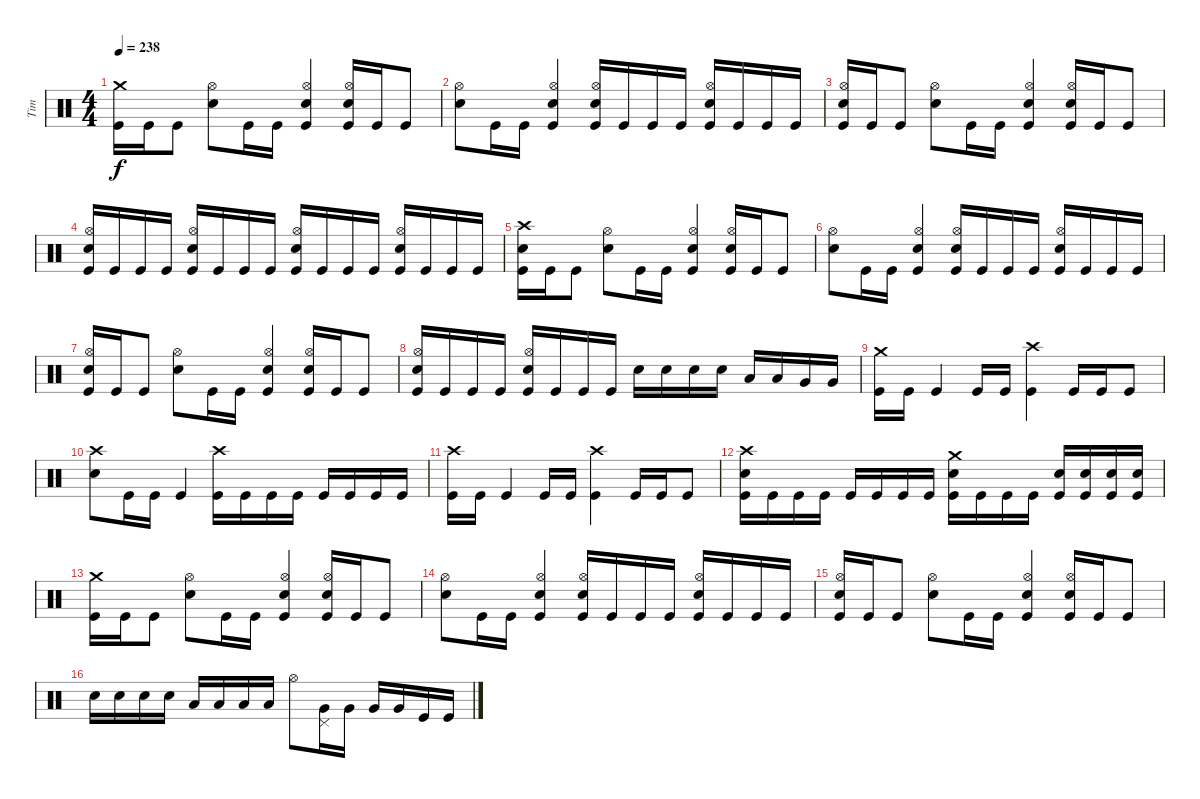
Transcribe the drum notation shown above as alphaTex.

\track ("Tim" "Tim") {instrument percussion}
\staff {score}
\articulation defaults
\ts (4 4)
\tempo 238
\clef neutral
\ks c
("Crash medium (hit)" "Kick (hit)").16{dy f} "Kick (hit)".16 "Kick (hit)".8 ("Hi-Hat (open)" "Electric Snare (hit)").8 "Kick (hit)".16 "Kick (hit)".16 ("Hi-Hat (open)" "Electric Snare (hit)" "Kick (hit)").4 ("Hi-Hat (open)" "Electric Snare (hit)" "Kick (hit)").16 "Kick (hit)".16 "Kick (hit)".8 |
("Hi-Hat (open)" "Electric Snare (hit)").8 "Kick (hit)".16 "Kick (hit)".16 ("Hi-Hat (open)" "Electric Snare (hit)" "Kick (hit)").4 ("Hi-Hat (open)" "Electric Snare (hit)" "Kick (hit)").16 "Kick (hit)".16 "Kick (hit)".16 "Kick (hit)".16 ("Hi-Hat (open)" "Electric Snare (hit)" "Kick (hit)").16 "Kick (hit)".16 "Kick (hit)".16 "Kick (hit)".16 |
("Hi-Hat (open)" "Electric Snare (hit)" "Kick (hit)").16 "Kick (hit)".16 "Kick (hit)".8 ("Hi-Hat (open)" "Electric Snare (hit)").8 "Kick (hit)".16 "Kick (hit)".16 ("Hi-Hat (open)" "Electric Snare (hit)" "Kick (hit)").4 ("Hi-Hat (open)" "Electric Snare (hit)" "Kick (hit)").16 "Kick (hit)".16 "Kick (hit)".8 |
("Hi-Hat (open)" "Electric Snare (hit)" "Kick (hit)").16 "Kick (hit)".16 "Kick (hit)".16 "Kick (hit)".16 ("Hi-Hat (open)" "Electric Snare (hit)" "Kick (hit)").16 "Kick (hit)".16 "Kick (hit)".16 "Kick (hit)".16 ("Hi-Hat (open)" "Electric Snare (hit)" "Kick (hit)").16 "Kick (hit)".16 "Kick (hit)".16 "Kick (hit)".16 ("Hi-Hat (open)" "Electric Snare (hit)" "Kick (hit)").16 "Kick (hit)".16 "Kick (hit)".16 "Kick (hit)".16 |
("Crash high (hit)" "Electric Snare (hit)" "Kick (hit)").16 "Kick (hit)".16 "Kick (hit)".8 ("Hi-Hat (open)" "Electric Snare (hit)").8 "Kick (hit)".16 "Kick (hit)".16 ("Hi-Hat (open)" "Electric Snare (hit)" "Kick (hit)").4 ("Hi-Hat (open)" "Electric Snare (hit)" "Kick (hit)").16 "Kick (hit)".16 "Kick (hit)".8 |
("Hi-Hat (open)" "Electric Snare (hit)").8 "Kick (hit)".16 "Kick (hit)".16 ("Hi-Hat (open)" "Electric Snare (hit)" "Kick (hit)").4 ("Hi-Hat (open)" "Electric Snare (hit)" "Kick (hit)").16 "Kick (hit)".16 "Kick (hit)".16 "Kick (hit)".16 ("Hi-Hat (open)" "Electric Snare (hit)" "Kick (hit)").16 "Kick (hit)".16 "Kick (hit)".16 "Kick (hit)".16 |
("Hi-Hat (open)" "Electric Snare (hit)" "Kick (hit)").16 "Kick (hit)".16 "Kick (hit)".8 ("Hi-Hat (open)" "Electric Snare (hit)").8 "Kick (hit)".16 "Kick (hit)".16 ("Hi-Hat (open)" "Electric Snare (hit)" "Kick (hit)").4 ("Hi-Hat (open)" "Electric Snare (hit)" "Kick (hit)").16 "Kick (hit)".16 "Kick (hit)".8 |
("Hi-Hat (open)" "Electric Snare (hit)" "Kick (hit)").16 "Kick (hit)".16 "Kick (hit)".16 "Kick (hit)".16 ("Hi-Hat (open)" "Electric Snare (hit)" "Kick (hit)").16 "Kick (hit)".16 "Kick (hit)".16 "Kick (hit)".16 "Electric Snare (hit)".16 "Electric Snare (hit)".16 "Electric Snare (hit)".16 "Electric Snare (hit)".16 "Low Tom (hit)".16 "Low Tom (hit)".16 "Very Low Tom (hit)".16 "Very Low Tom (hit)".16 |
("Crash medium (hit)" "Kick (hit)").16 "Kick (hit)".16 "Kick (hit)".4 "Kick (hit)".16 "Kick (hit)".16 ("Crash high (hit)" "Kick (hit)").4 "Kick (hit)".16 "Kick (hit)".16 "Kick (hit)".8 |
("Crash high (hit)" "Electric Snare (hit)").8 "Kick (hit)".16 "Kick (hit)".16 "Kick (hit)".4 ("Crash high (hit)" "Kick (hit)").16 "Kick (hit)".16 "Kick (hit)".16 "Kick (hit)".16 "Kick (hit)".16 "Kick (hit)".16 "Kick (hit)".16 "Kick (hit)".16 |
("Crash high (hit)" "Kick (hit)").16 "Kick (hit)".16 "Kick (hit)".4 "Kick (hit)".16 "Kick (hit)".16 ("Crash high (hit)" "Kick (hit)").4 "Kick (hit)".16 "Kick (hit)".16 "Kick (hit)".8 |
("Crash high (hit)" "Electric Snare (hit)" "Kick (hit)").16 "Kick (hit)".16 "Kick (hit)".16 "Kick (hit)".16 "Kick (hit)".16 "Kick (hit)".16 "Kick (hit)".16 "Kick (hit)".16 ("Crash medium (hit)" "Electric Snare (hit)" "Kick (hit)").16 "Kick (hit)".16 "Kick (hit)".16 "Kick (hit)".16 ("Electric Snare (hit)" "Kick (hit)").16 ("Electric Snare (hit)" "Kick (hit)").16 ("Electric Snare (hit)" "Kick (hit)").16 ("Electric Snare (hit)" "Kick (hit)").16 |
("Crash medium (hit)" "Kick (hit)").16 "Kick (hit)".16 "Kick (hit)".8 ("Hi-Hat (open)" "Electric Snare (hit)").8 "Kick (hit)".16 "Kick (hit)".16 ("Hi-Hat (open)" "Electric Snare (hit)" "Kick (hit)").4 ("Hi-Hat (open)" "Electric Snare (hit)" "Kick (hit)").16 "Kick (hit)".16 "Kick (hit)".8 |
("Hi-Hat (open)" "Electric Snare (hit)").8 "Kick (hit)".16 "Kick (hit)".16 ("Hi-Hat (open)" "Electric Snare (hit)" "Kick (hit)").4 ("Hi-Hat (open)" "Electric Snare (hit)" "Kick (hit)").16 "Kick (hit)".16 "Kick (hit)".16 "Kick (hit)".16 ("Hi-Hat (open)" "Electric Snare (hit)" "Kick (hit)").16 "Kick (hit)".16 "Kick (hit)".16 "Kick (hit)".16 |
("Hi-Hat (open)" "Electric Snare (hit)" "Kick (hit)").16 "Kick (hit)".16 "Kick (hit)".8 ("Hi-Hat (open)" "Electric Snare (hit)").8 "Kick (hit)".16 "Kick (hit)".16 ("Hi-Hat (open)" "Electric Snare (hit)" "Kick (hit)").4 ("Hi-Hat (open)" "Electric Snare (hit)" "Kick (hit)").16 "Kick (hit)".16 "Kick (hit)".8 |
"Electric Snare (hit)".16 "Electric Snare (hit)".16 "Electric Snare (hit)".16 "Electric Snare (hit)".16 "Low Tom (hit)".16 "Low Tom (hit)".16 "Low Tom (hit)".16 "Low Tom (hit)".16 "Hi-Hat (open)".8 ("Pedal Hi-Hat (hit)" "Very Low Tom (hit)").16 "Very Low Tom (hit)".16 "Very Low Tom (hit)".16 "Very Low Tom (hit)".16 "Kick (hit)".16 "Kick (hit)".16
